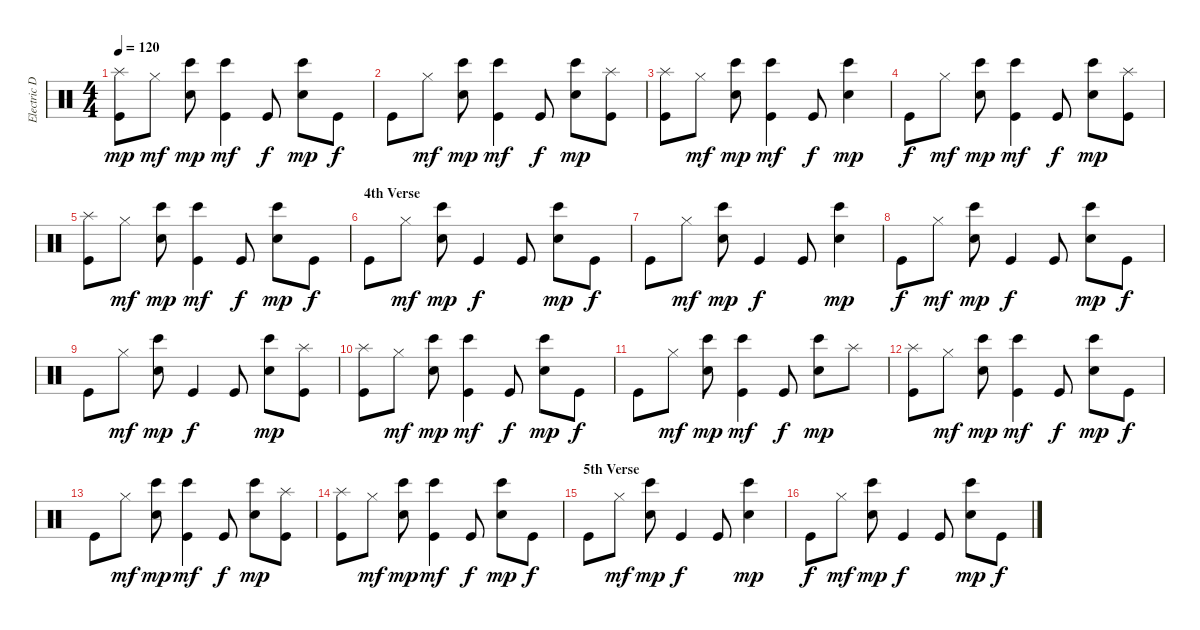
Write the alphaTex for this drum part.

\track ("Electric Drums" "Electric D") {instrument percussion}
\staff {score}
\articulation defaults
\ts (4 4)
\tempo 120
\clef neutral
\ks c
("Splash (hit)" "Kick (hit)").8{dy mp} "Hi-Hat (closed)".8{dy mf} ("Bongo High (hit)" "Electric Snare (hit)").8{dy mp} ("Bongo High (hit)" "Kick (hit)").4{dy mf} "Kick (hit)".8{dy f} ("Bongo High (hit)" "Electric Snare (hit)").8{dy mp} "Kick (hit)".8{dy f} |
"Kick (hit)".8 "Hi-Hat (closed)".8{dy mf} ("Bongo High (hit)" "Electric Snare (hit)").8{dy mp} ("Bongo High (hit)" "Kick (hit)").4{dy mf} "Kick (hit)".8{dy f} ("Bongo High (hit)" "Electric Snare (hit)").8{dy mp} ("Splash (hit)" "Kick (hit)").8 |
("Splash (hit)" "Kick (hit)").8 "Hi-Hat (closed)".8{dy mf} ("Bongo High (hit)" "Electric Snare (hit)").8{dy mp} ("Bongo High (hit)" "Kick (hit)").4{dy mf} "Kick (hit)".8{dy f} ("Bongo High (hit)" "Electric Snare (hit)").4{dy mp} |
"Kick (hit)".8{dy f} "Hi-Hat (closed)".8{dy mf} ("Bongo High (hit)" "Electric Snare (hit)").8{dy mp} ("Bongo High (hit)" "Kick (hit)").4{dy mf} "Kick (hit)".8{dy f} ("Bongo High (hit)" "Electric Snare (hit)").8{dy mp} ("Splash (hit)" "Kick (hit)").8 |
("Splash (hit)" "Kick (hit)").8 "Hi-Hat (closed)".8{dy mf} ("Bongo High (hit)" "Electric Snare (hit)").8{dy mp} ("Bongo High (hit)" "Kick (hit)").4{dy mf} "Kick (hit)".8{dy f} ("Bongo High (hit)" "Electric Snare (hit)").8{dy mp} "Kick (hit)".8{dy f} |
\section ("" "4th Verse")
"Kick (hit)".8 "Hi-Hat (closed)".8{dy mf} ("Bongo High (hit)" "Electric Snare (hit)").8{dy mp} "Kick (hit)".4{dy f} "Kick (hit)".8 ("Bongo High (hit)" "Electric Snare (hit)").8{dy mp} "Kick (hit)".8{dy f} |
"Kick (hit)".8 "Hi-Hat (closed)".8{dy mf} ("Bongo High (hit)" "Electric Snare (hit)").8{dy mp} "Kick (hit)".4{dy f} "Kick (hit)".8 ("Bongo High (hit)" "Electric Snare (hit)").4{dy mp} |
"Kick (hit)".8{dy f} "Hi-Hat (closed)".8{dy mf} ("Bongo High (hit)" "Electric Snare (hit)").8{dy mp} "Kick (hit)".4{dy f} "Kick (hit)".8 ("Bongo High (hit)" "Electric Snare (hit)").8{dy mp} "Kick (hit)".8{dy f} |
"Kick (hit)".8 "Hi-Hat (closed)".8{dy mf} ("Bongo High (hit)" "Electric Snare (hit)").8{dy mp} "Kick (hit)".4{dy f} "Kick (hit)".8 ("Bongo High (hit)" "Electric Snare (hit)").8{dy mp} ("Splash (hit)" "Kick (hit)").8 |
("Splash (hit)" "Kick (hit)").8 "Hi-Hat (closed)".8{dy mf} ("Bongo High (hit)" "Electric Snare (hit)").8{dy mp} ("Bongo High (hit)" "Kick (hit)").4{dy mf} "Kick (hit)".8{dy f} ("Bongo High (hit)" "Electric Snare (hit)").8{dy mp} "Kick (hit)".8{dy f} |
"Kick (hit)".8 "Hi-Hat (closed)".8{dy mf} ("Bongo High (hit)" "Electric Snare (hit)").8{dy mp} ("Bongo High (hit)" "Kick (hit)").4{dy mf} "Kick (hit)".8{dy f} ("Bongo High (hit)" "Electric Snare (hit)").8{dy mp} "Splash (hit)".8 |
("Splash (hit)" "Kick (hit)").8 "Hi-Hat (closed)".8{dy mf} ("Bongo High (hit)" "Electric Snare (hit)").8{dy mp} ("Bongo High (hit)" "Kick (hit)").4{dy mf} "Kick (hit)".8{dy f} ("Bongo High (hit)" "Electric Snare (hit)").8{dy mp} "Kick (hit)".8{dy f} |
"Kick (hit)".8 "Hi-Hat (closed)".8{dy mf} ("Bongo High (hit)" "Electric Snare (hit)").8{dy mp} ("Bongo High (hit)" "Kick (hit)").4{dy mf} "Kick (hit)".8{dy f} ("Bongo High (hit)" "Electric Snare (hit)").8{dy mp} ("Splash (hit)" "Kick (hit)").8 |
("Splash (hit)" "Kick (hit)").8 "Hi-Hat (closed)".8{dy mf} ("Bongo High (hit)" "Electric Snare (hit)").8{dy mp} ("Bongo High (hit)" "Kick (hit)").4{dy mf} "Kick (hit)".8{dy f} ("Bongo High (hit)" "Electric Snare (hit)").8{dy mp} "Kick (hit)".8{dy f} |
\section ("" "5th Verse")
"Kick (hit)".8 "Hi-Hat (closed)".8{dy mf} ("Bongo High (hit)" "Electric Snare (hit)").8{dy mp} "Kick (hit)".4{dy f} "Kick (hit)".8 ("Bongo High (hit)" "Electric Snare (hit)").4{dy mp} |
"Kick (hit)".8{dy f} "Hi-Hat (closed)".8{dy mf} ("Bongo High (hit)" "Electric Snare (hit)").8{dy mp} "Kick (hit)".4{dy f} "Kick (hit)".8 ("Bongo High (hit)" "Electric Snare (hit)").8{dy mp} "Kick (hit)".8{dy f}
